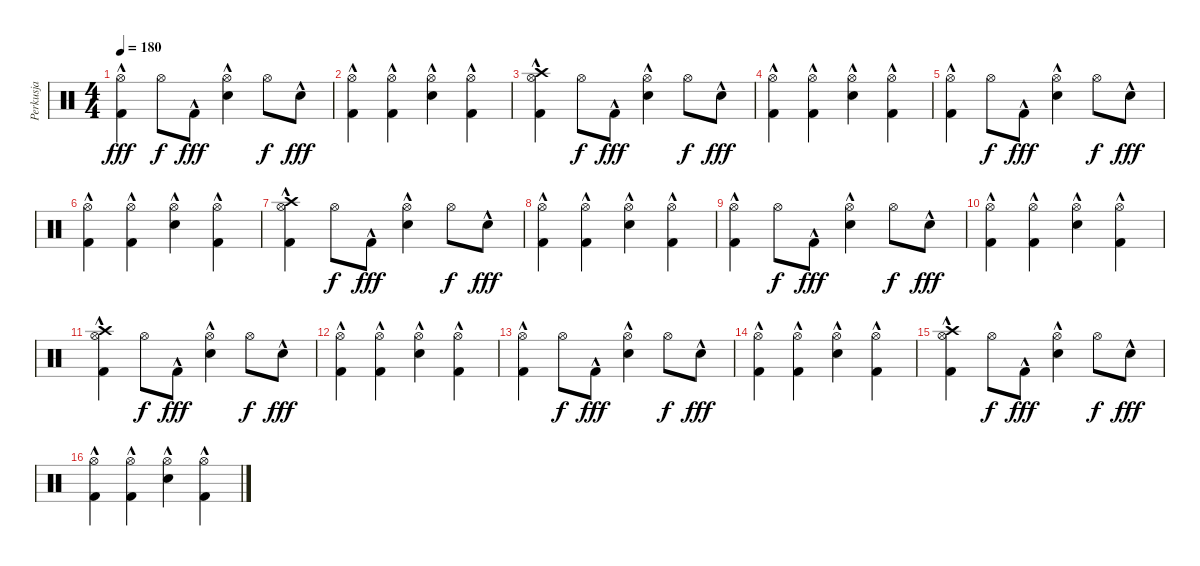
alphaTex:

\track ("Perkusja" "Perkusja") {instrument percussion}
\staff {score}
\articulation defaults
\ts (4 4)
\tempo 180
\clef neutral
\ks c
("Hi-Hat (open)" "Kick (hit) 2"{hac}).4{dy fff} "Hi-Hat (open)".8{dy f} "Kick (hit) 2"{hac}.8{dy fff} ("Hi-Hat (open)" "Electric Snare (hit)"{hac}).4 "Hi-Hat (open)".8{dy f} "Electric Snare (hit)"{hac}.8{dy fff} |
("Hi-Hat (open)" "Kick (hit) 2"{hac}).4 ("Hi-Hat (open)" "Kick (hit) 2"{hac}).4 ("Hi-Hat (open)" "Electric Snare (hit)"{hac}).4 ("Hi-Hat (open)" "Kick (hit) 2"{hac}).4 |
("Crash high (hit)" "Hi-Hat (open)" "Kick (hit) 2"{hac}).4 "Hi-Hat (open)".8{dy f} "Kick (hit) 2"{hac}.8{dy fff} ("Hi-Hat (open)" "Electric Snare (hit)"{hac}).4 "Hi-Hat (open)".8{dy f} "Electric Snare (hit)"{hac}.8{dy fff} |
("Hi-Hat (open)" "Kick (hit) 2"{hac}).4 ("Hi-Hat (open)" "Kick (hit) 2"{hac}).4 ("Hi-Hat (open)" "Electric Snare (hit)"{hac}).4 ("Hi-Hat (open)" "Kick (hit) 2"{hac}).4 |
("Hi-Hat (open)" "Kick (hit) 2"{hac}).4 "Hi-Hat (open)".8{dy f} "Kick (hit) 2"{hac}.8{dy fff} ("Hi-Hat (open)" "Electric Snare (hit)"{hac}).4 "Hi-Hat (open)".8{dy f} "Electric Snare (hit)"{hac}.8{dy fff} |
("Hi-Hat (open)" "Kick (hit) 2"{hac}).4 ("Hi-Hat (open)" "Kick (hit) 2"{hac}).4 ("Hi-Hat (open)" "Electric Snare (hit)"{hac}).4 ("Hi-Hat (open)" "Kick (hit) 2"{hac}).4 |
("Crash high (hit)" "Hi-Hat (open)" "Kick (hit) 2"{hac}).4 "Hi-Hat (open)".8{dy f} "Kick (hit) 2"{hac}.8{dy fff} ("Hi-Hat (open)" "Electric Snare (hit)"{hac}).4 "Hi-Hat (open)".8{dy f} "Electric Snare (hit)"{hac}.8{dy fff} |
("Hi-Hat (open)" "Kick (hit) 2"{hac}).4 ("Hi-Hat (open)" "Kick (hit) 2"{hac}).4 ("Hi-Hat (open)" "Electric Snare (hit)"{hac}).4 ("Hi-Hat (open)" "Kick (hit) 2"{hac}).4 |
("Hi-Hat (open)" "Kick (hit) 2"{hac}).4 "Hi-Hat (open)".8{dy f} "Kick (hit) 2"{hac}.8{dy fff} ("Hi-Hat (open)" "Electric Snare (hit)"{hac}).4 "Hi-Hat (open)".8{dy f} "Electric Snare (hit)"{hac}.8{dy fff} |
("Hi-Hat (open)" "Kick (hit) 2"{hac}).4 ("Hi-Hat (open)" "Kick (hit) 2"{hac}).4 ("Hi-Hat (open)" "Electric Snare (hit)"{hac}).4 ("Hi-Hat (open)" "Kick (hit) 2"{hac}).4 |
("Crash high (hit)" "Hi-Hat (open)" "Kick (hit) 2"{hac}).4 "Hi-Hat (open)".8{dy f} "Kick (hit) 2"{hac}.8{dy fff} ("Hi-Hat (open)" "Electric Snare (hit)"{hac}).4 "Hi-Hat (open)".8{dy f} "Electric Snare (hit)"{hac}.8{dy fff} |
("Hi-Hat (open)" "Kick (hit) 2"{hac}).4 ("Hi-Hat (open)" "Kick (hit) 2"{hac}).4 ("Hi-Hat (open)" "Electric Snare (hit)"{hac}).4 ("Hi-Hat (open)" "Kick (hit) 2"{hac}).4 |
("Hi-Hat (open)" "Kick (hit) 2"{hac}).4 "Hi-Hat (open)".8{dy f} "Kick (hit) 2"{hac}.8{dy fff} ("Hi-Hat (open)" "Electric Snare (hit)"{hac}).4 "Hi-Hat (open)".8{dy f} "Electric Snare (hit)"{hac}.8{dy fff} |
("Hi-Hat (open)" "Kick (hit) 2"{hac}).4 ("Hi-Hat (open)" "Kick (hit) 2"{hac}).4 ("Hi-Hat (open)" "Electric Snare (hit)"{hac}).4 ("Hi-Hat (open)" "Kick (hit) 2"{hac}).4 |
("Crash high (hit)" "Hi-Hat (open)" "Kick (hit) 2"{hac}).4 "Hi-Hat (open)".8{dy f} "Kick (hit) 2"{hac}.8{dy fff} ("Hi-Hat (open)" "Electric Snare (hit)"{hac}).4 "Hi-Hat (open)".8{dy f} "Electric Snare (hit)"{hac}.8{dy fff} |
("Hi-Hat (open)" "Kick (hit) 2"{hac}).4 ("Hi-Hat (open)" "Kick (hit) 2"{hac}).4 ("Hi-Hat (open)" "Electric Snare (hit)"{hac}).4 ("Hi-Hat (open)" "Kick (hit) 2"{hac}).4
